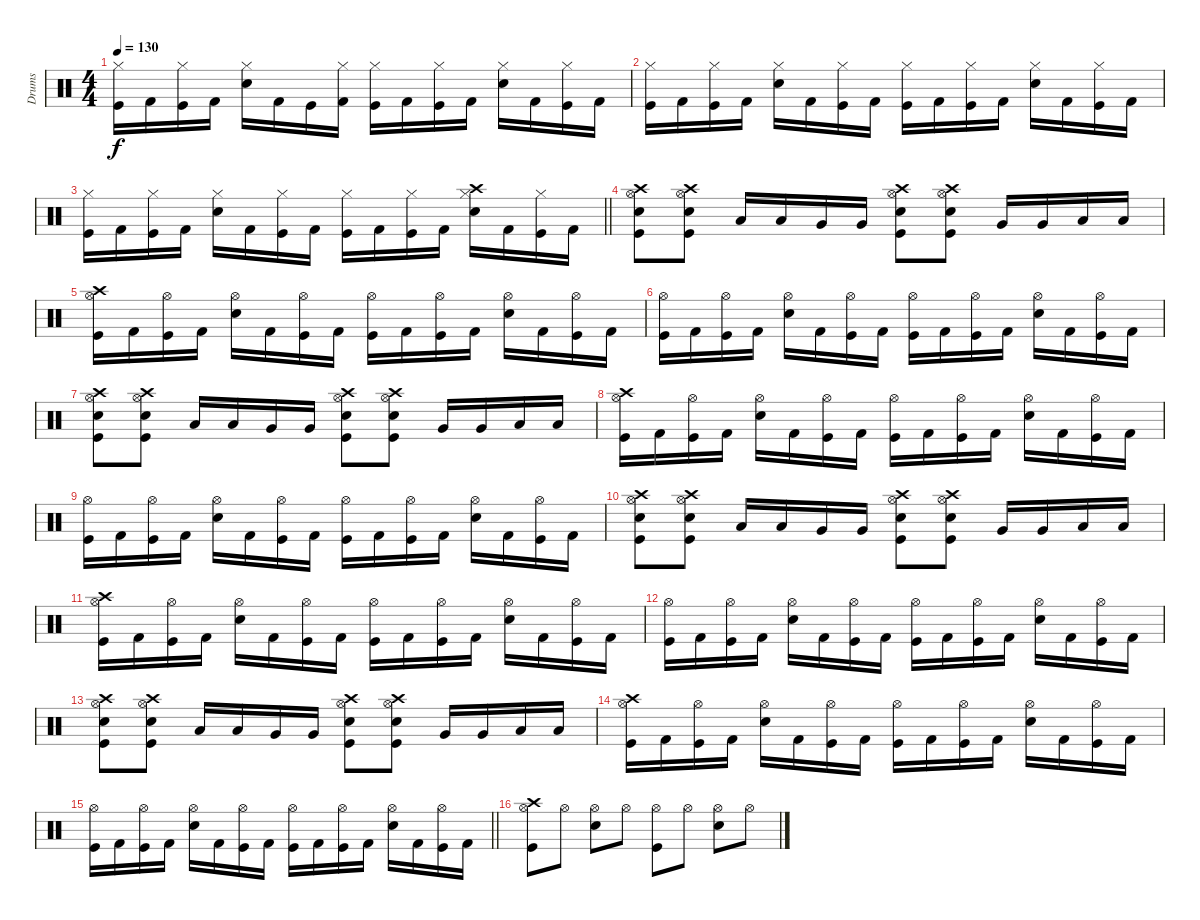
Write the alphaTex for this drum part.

\track ("Drums" "Drums") {instrument percussion}
\staff {score}
\articulation defaults
\ts (4 4)
\tempo 130
\clef neutral
\ks c
("Hi-Hat (closed)" "Kick (hit)").16{dy f} "Kick (hit) 2".16 ("Hi-Hat (closed)" "Kick (hit)").16 "Kick (hit) 2".16 ("Hi-Hat (closed)" "Snare (hit) 2").16 "Kick (hit) 2".16 "Kick (hit)".16 ("Hi-Hat (closed)" "Kick (hit) 2").16 ("Hi-Hat (closed)" "Kick (hit)").16 "Kick (hit) 2".16 ("Hi-Hat (closed)" "Kick (hit)").16 "Kick (hit) 2".16 ("Hi-Hat (closed)" "Snare (hit) 2").16 "Kick (hit) 2".16 ("Hi-Hat (closed)" "Kick (hit)").16 "Kick (hit) 2".16 |
("Hi-Hat (closed)" "Kick (hit)").16 "Kick (hit) 2".16 ("Hi-Hat (closed)" "Kick (hit)").16 "Kick (hit) 2".16 ("Hi-Hat (closed)" "Snare (hit) 2").16 "Kick (hit) 2".16 ("Hi-Hat (closed)" "Kick (hit)").16 "Kick (hit) 2".16 ("Hi-Hat (closed)" "Kick (hit)").16 "Kick (hit) 2".16 ("Hi-Hat (closed)" "Kick (hit)").16 "Kick (hit) 2".16 ("Hi-Hat (closed)" "Snare (hit) 2").16 "Kick (hit) 2".16 ("Hi-Hat (closed)" "Kick (hit)").16 "Kick (hit) 2".16 |
\barLineRight lightlight
("Hi-Hat (closed)" "Kick (hit)").16 "Kick (hit) 2".16 ("Hi-Hat (closed)" "Kick (hit)").16 "Kick (hit) 2".16 ("Hi-Hat (closed)" "Snare (hit) 2").16 "Kick (hit) 2".16 ("Hi-Hat (closed)" "Kick (hit)").16 "Kick (hit) 2".16 ("Hi-Hat (closed)" "Kick (hit)").16 "Kick (hit) 2".16 ("Hi-Hat (closed)" "Kick (hit)").16 "Kick (hit) 2".16 ("Crash high (hit)" "Hi-Hat (closed)" "Snare (hit) 2").16 "Kick (hit) 2".16 ("Hi-Hat (closed)" "Kick (hit)").16 "Kick (hit) 2".16 |
\section ("" "")
("Crash high (hit)" "Hi-Hat (open)" "Snare (hit) 2" "Kick (hit)").8 ("Crash high (hit)" "Hi-Hat (open)" "Snare (hit) 2" "Kick (hit)").8 "Low Tom (hit)".16 "Low Tom (hit)".16 "Very Low Tom (hit)".16 "Very Low Tom (hit)".16 ("Crash high (hit)" "Hi-Hat (open)" "Snare (hit) 2" "Kick (hit)").8 ("Crash high (hit)" "Hi-Hat (open)" "Snare (hit) 2" "Kick (hit)").8 "Very Low Tom (hit)".16 "Very Low Tom (hit)".16 "Low Floor Tom (hit)".16 "Low Floor Tom (hit)".16 |
("Crash high (hit)" "Hi-Hat (open)" "Kick (hit)").16 "Kick (hit) 2".16 ("Hi-Hat (open)" "Kick (hit)").16 "Kick (hit) 2".16 ("Hi-Hat (open)" "Snare (hit) 2").16 "Kick (hit) 2".16 ("Hi-Hat (open)" "Kick (hit)").16 "Kick (hit) 2".16 ("Hi-Hat (open)" "Kick (hit)").16 "Kick (hit) 2".16 ("Hi-Hat (open)" "Kick (hit)").16 "Kick (hit) 2".16 ("Hi-Hat (open)" "Snare (hit) 2").16 "Kick (hit) 2".16 ("Hi-Hat (open)" "Kick (hit)").16 "Kick (hit) 2".16 |
("Hi-Hat (open)" "Kick (hit)").16 "Kick (hit) 2".16 ("Hi-Hat (open)" "Kick (hit)").16 "Kick (hit) 2".16 ("Hi-Hat (open)" "Snare (hit) 2").16 "Kick (hit) 2".16 ("Hi-Hat (open)" "Kick (hit)").16 "Kick (hit) 2".16 ("Hi-Hat (open)" "Kick (hit)").16 "Kick (hit) 2".16 ("Hi-Hat (open)" "Kick (hit)").16 "Kick (hit) 2".16 ("Hi-Hat (open)" "Snare (hit) 2").16 "Kick (hit) 2".16 ("Hi-Hat (open)" "Kick (hit)").16 "Kick (hit) 2".16 |
("Crash high (hit)" "Hi-Hat (open)" "Snare (hit) 2" "Kick (hit)").8 ("Crash high (hit)" "Hi-Hat (open)" "Snare (hit) 2" "Kick (hit)").8 "Low Tom (hit)".16 "Low Tom (hit)".16 "Very Low Tom (hit)".16 "Very Low Tom (hit)".16 ("Crash high (hit)" "Hi-Hat (open)" "Snare (hit) 2" "Kick (hit)").8 ("Crash high (hit)" "Hi-Hat (open)" "Snare (hit) 2" "Kick (hit)").8 "Very Low Tom (hit)".16 "Very Low Tom (hit)".16 "Low Floor Tom (hit)".16 "Low Floor Tom (hit)".16 |
("Crash high (hit)" "Hi-Hat (open)" "Kick (hit)").16 "Kick (hit) 2".16 ("Hi-Hat (open)" "Kick (hit)").16 "Kick (hit) 2".16 ("Hi-Hat (open)" "Snare (hit) 2").16 "Kick (hit) 2".16 ("Hi-Hat (open)" "Kick (hit)").16 "Kick (hit) 2".16 ("Hi-Hat (open)" "Kick (hit)").16 "Kick (hit) 2".16 ("Hi-Hat (open)" "Kick (hit)").16 "Kick (hit) 2".16 ("Hi-Hat (open)" "Snare (hit) 2").16 "Kick (hit) 2".16 ("Hi-Hat (open)" "Kick (hit)").16 "Kick (hit) 2".16 |
("Hi-Hat (open)" "Kick (hit)").16 "Kick (hit) 2".16 ("Hi-Hat (open)" "Kick (hit)").16 "Kick (hit) 2".16 ("Hi-Hat (open)" "Snare (hit) 2").16 "Kick (hit) 2".16 ("Hi-Hat (open)" "Kick (hit)").16 "Kick (hit) 2".16 ("Hi-Hat (open)" "Kick (hit)").16 "Kick (hit) 2".16 ("Hi-Hat (open)" "Kick (hit)").16 "Kick (hit) 2".16 ("Hi-Hat (open)" "Snare (hit) 2").16 "Kick (hit) 2".16 ("Hi-Hat (open)" "Kick (hit)").16 "Kick (hit) 2".16 |
("Crash high (hit)" "Hi-Hat (open)" "Snare (hit) 2" "Kick (hit)").8 ("Crash high (hit)" "Hi-Hat (open)" "Snare (hit) 2" "Kick (hit)").8 "Low Tom (hit)".16 "Low Tom (hit)".16 "Very Low Tom (hit)".16 "Very Low Tom (hit)".16 ("Crash high (hit)" "Hi-Hat (open)" "Snare (hit) 2" "Kick (hit)").8 ("Crash high (hit)" "Hi-Hat (open)" "Snare (hit) 2" "Kick (hit)").8 "Very Low Tom (hit)".16 "Very Low Tom (hit)".16 "Low Floor Tom (hit)".16 "Low Floor Tom (hit)".16 |
("Crash high (hit)" "Hi-Hat (open)" "Kick (hit)").16 "Kick (hit) 2".16 ("Hi-Hat (open)" "Kick (hit)").16 "Kick (hit) 2".16 ("Hi-Hat (open)" "Snare (hit) 2").16 "Kick (hit) 2".16 ("Hi-Hat (open)" "Kick (hit)").16 "Kick (hit) 2".16 ("Hi-Hat (open)" "Kick (hit)").16 "Kick (hit) 2".16 ("Hi-Hat (open)" "Kick (hit)").16 "Kick (hit) 2".16 ("Hi-Hat (open)" "Snare (hit) 2").16 "Kick (hit) 2".16 ("Hi-Hat (open)" "Kick (hit)").16 "Kick (hit) 2".16 |
("Hi-Hat (open)" "Kick (hit)").16 "Kick (hit) 2".16 ("Hi-Hat (open)" "Kick (hit)").16 "Kick (hit) 2".16 ("Hi-Hat (open)" "Snare (hit) 2").16 "Kick (hit) 2".16 ("Hi-Hat (open)" "Kick (hit)").16 "Kick (hit) 2".16 ("Hi-Hat (open)" "Kick (hit)").16 "Kick (hit) 2".16 ("Hi-Hat (open)" "Kick (hit)").16 "Kick (hit) 2".16 ("Hi-Hat (open)" "Snare (hit) 2").16 "Kick (hit) 2".16 ("Hi-Hat (open)" "Kick (hit)").16 "Kick (hit) 2".16 |
("Crash high (hit)" "Hi-Hat (open)" "Snare (hit) 2" "Kick (hit)").8 ("Crash high (hit)" "Hi-Hat (open)" "Snare (hit) 2" "Kick (hit)").8 "Low Tom (hit)".16 "Low Tom (hit)".16 "Very Low Tom (hit)".16 "Very Low Tom (hit)".16 ("Crash high (hit)" "Hi-Hat (open)" "Snare (hit) 2" "Kick (hit)").8 ("Crash high (hit)" "Hi-Hat (open)" "Snare (hit) 2" "Kick (hit)").8 "Very Low Tom (hit)".16 "Very Low Tom (hit)".16 "Low Floor Tom (hit)".16 "Low Floor Tom (hit)".16 |
("Crash high (hit)" "Hi-Hat (open)" "Kick (hit)").16 "Kick (hit) 2".16 ("Hi-Hat (open)" "Kick (hit)").16 "Kick (hit) 2".16 ("Hi-Hat (open)" "Snare (hit) 2").16 "Kick (hit) 2".16 ("Hi-Hat (open)" "Kick (hit)").16 "Kick (hit) 2".16 ("Hi-Hat (open)" "Kick (hit)").16 "Kick (hit) 2".16 ("Hi-Hat (open)" "Kick (hit)").16 "Kick (hit) 2".16 ("Hi-Hat (open)" "Snare (hit) 2").16 "Kick (hit) 2".16 ("Hi-Hat (open)" "Kick (hit)").16 "Kick (hit) 2".16 |
\barLineRight lightlight
("Hi-Hat (open)" "Kick (hit)").16 "Kick (hit) 2".16 ("Hi-Hat (open)" "Kick (hit)").16 "Kick (hit) 2".16 ("Hi-Hat (open)" "Snare (hit) 2").16 "Kick (hit) 2".16 ("Hi-Hat (open)" "Kick (hit)").16 "Kick (hit) 2".16 ("Hi-Hat (open)" "Kick (hit)").16 "Kick (hit) 2".16 ("Hi-Hat (open)" "Kick (hit)").16 "Kick (hit) 2".16 ("Hi-Hat (open)" "Snare (hit) 2").16 "Kick (hit) 2".16 ("Hi-Hat (open)" "Kick (hit)").16 "Kick (hit) 2".16 |
\section ("" "")
("Crash high (hit)" "Hi-Hat (open)" "Kick (hit)").8 "Hi-Hat (open)".8 ("Hi-Hat (open)" "Snare (hit) 2").8 "Hi-Hat (open)".8 ("Hi-Hat (open)" "Kick (hit)").8 "Hi-Hat (open)".8 ("Hi-Hat (open)" "Snare (hit) 2").8 "Hi-Hat (open)".8
